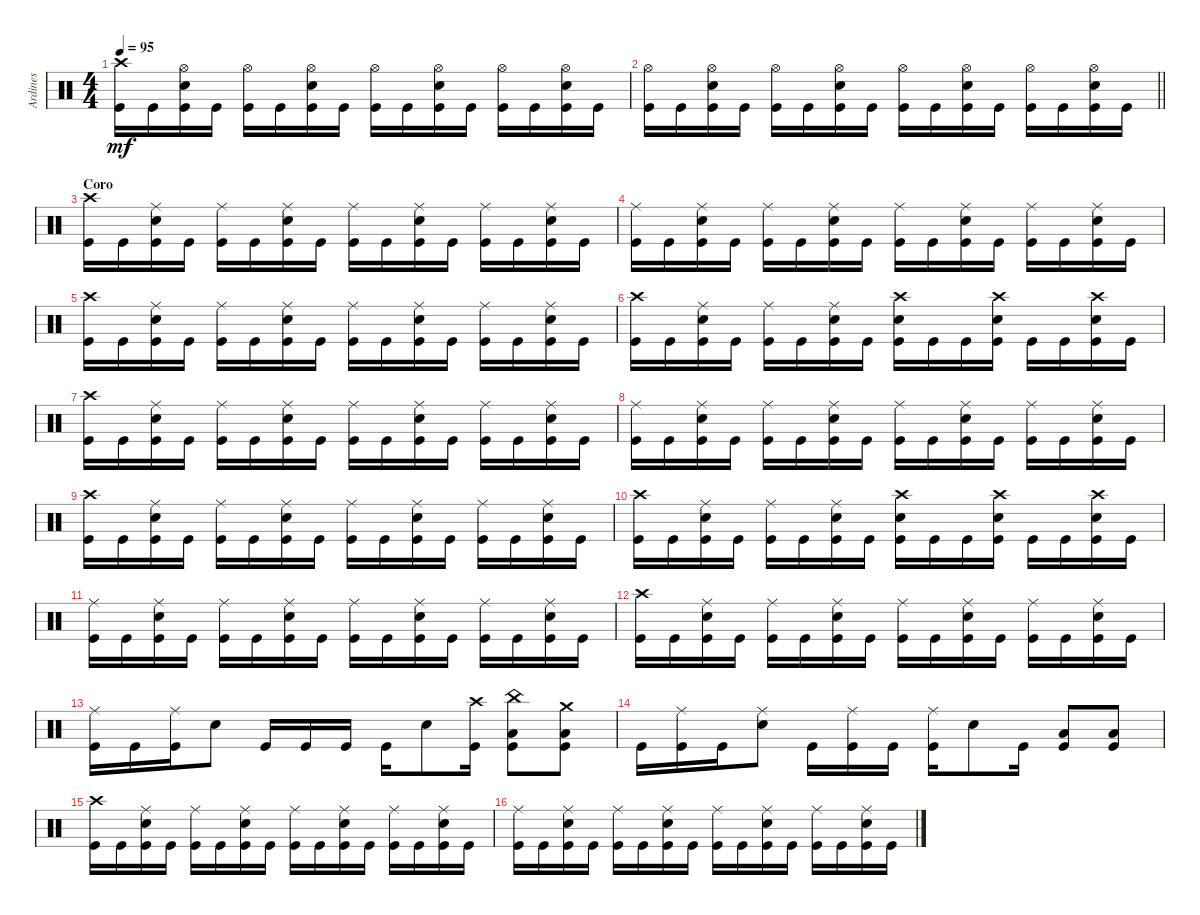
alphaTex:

\track ("Ardines" "Ardines") {instrument percussion}
\staff {score}
\articulation defaults
\ts (4 4)
\tempo 95
\clef neutral
\ks c
("Crash high (hit)" "Kick (hit)").16{dy mf} "Kick (hit)".16 ("Hi-Hat (open)" "Snare (hit) 2" "Kick (hit)").16 "Kick (hit)".16 ("Hi-Hat (open)" "Kick (hit)").16 "Kick (hit)".16 ("Hi-Hat (open)" "Snare (hit) 2" "Kick (hit)").16 "Kick (hit)".16 ("Hi-Hat (open)" "Kick (hit)").16 "Kick (hit)".16 ("Hi-Hat (open)" "Snare (hit) 2" "Kick (hit)").16 "Kick (hit)".16 ("Hi-Hat (open)" "Kick (hit)").16 "Kick (hit)".16 ("Hi-Hat (open)" "Snare (hit) 2" "Kick (hit)").16 "Kick (hit)".16 |
\barLineRight lightlight
("Hi-Hat (open)" "Kick (hit)").16 "Kick (hit)".16 ("Hi-Hat (open)" "Snare (hit) 2" "Kick (hit)").16 "Kick (hit)".16 ("Hi-Hat (open)" "Kick (hit)").16 "Kick (hit)".16 ("Hi-Hat (open)" "Snare (hit) 2" "Kick (hit)").16 "Kick (hit)".16 ("Hi-Hat (open)" "Kick (hit)").16 "Kick (hit)".16 ("Hi-Hat (open)" "Snare (hit) 2" "Kick (hit)").16 "Kick (hit)".16 ("Hi-Hat (open)" "Kick (hit)").16 "Kick (hit)".16 ("Hi-Hat (open)" "Snare (hit) 2" "Kick (hit)").16 "Kick (hit)".16 |
\section ("" "Coro")
("Crash high (hit)" "Kick (hit)").16 "Kick (hit)".16 ("Ride (middle)" "Snare (hit) 2" "Kick (hit)").16 "Kick (hit)".16 ("Ride (middle)" "Kick (hit)").16 "Kick (hit)".16 ("Ride (middle)" "Snare (hit) 2" "Kick (hit)").16 "Kick (hit)".16 ("Ride (middle)" "Kick (hit)").16 "Kick (hit)".16 ("Ride (middle)" "Snare (hit) 2" "Kick (hit)").16 "Kick (hit)".16 ("Ride (middle)" "Kick (hit)").16 "Kick (hit)".16 ("Ride (middle)" "Snare (hit) 2" "Kick (hit)").16 "Kick (hit)".16 |
("Ride (middle)" "Kick (hit)").16 "Kick (hit)".16 ("Ride (middle)" "Snare (hit) 2" "Kick (hit)").16 "Kick (hit)".16 ("Ride (middle)" "Kick (hit)").16 "Kick (hit)".16 ("Ride (middle)" "Snare (hit) 2" "Kick (hit)").16 "Kick (hit)".16 ("Ride (middle)" "Kick (hit)").16 "Kick (hit)".16 ("Ride (middle)" "Snare (hit) 2" "Kick (hit)").16 "Kick (hit)".16 ("Ride (middle)" "Kick (hit)").16 "Kick (hit)".16 ("Ride (middle)" "Snare (hit) 2" "Kick (hit)").16 "Kick (hit)".16 |
("Crash high (hit)" "Kick (hit)").16 "Kick (hit)".16 ("Ride (middle)" "Snare (hit) 2" "Kick (hit)").16 "Kick (hit)".16 ("Ride (middle)" "Kick (hit)").16 "Kick (hit)".16 ("Ride (middle)" "Snare (hit) 2" "Kick (hit)").16 "Kick (hit)".16 ("Ride (middle)" "Kick (hit)").16 "Kick (hit)".16 ("Ride (middle)" "Snare (hit) 2" "Kick (hit)").16 "Kick (hit)".16 ("Ride (middle)" "Kick (hit)").16 "Kick (hit)".16 ("Ride (middle)" "Snare (hit) 2" "Kick (hit)").16 "Kick (hit)".16 |
("Crash high (hit)" "Kick (hit)").16 "Kick (hit)".16 ("Ride (middle)" "Snare (hit) 2" "Kick (hit)").16 "Kick (hit)".16 ("Ride (middle)" "Kick (hit)").16 "Kick (hit)".16 ("Ride (middle)" "Snare (hit) 2" "Kick (hit)").16 "Kick (hit)".16 ("Crash high (hit)" "Snare (hit) 2" "Kick (hit)").16 "Kick (hit)".16 "Kick (hit)".16 ("Crash high (hit)" "Snare (hit) 2" "Kick (hit)").16 "Kick (hit)".16 "Kick (hit)".16 ("Crash high (hit)" "Snare (hit) 2" "Kick (hit)").16 "Kick (hit)".16 |
("Crash high (hit)" "Kick (hit)").16 "Kick (hit)".16 ("Ride (middle)" "Snare (hit) 2" "Kick (hit)").16 "Kick (hit)".16 ("Ride (middle)" "Kick (hit)").16 "Kick (hit)".16 ("Ride (middle)" "Snare (hit) 2" "Kick (hit)").16 "Kick (hit)".16 ("Ride (middle)" "Kick (hit)").16 "Kick (hit)".16 ("Ride (middle)" "Snare (hit) 2" "Kick (hit)").16 "Kick (hit)".16 ("Ride (middle)" "Kick (hit)").16 "Kick (hit)".16 ("Ride (middle)" "Snare (hit) 2" "Kick (hit)").16 "Kick (hit)".16 |
("Ride (middle)" "Kick (hit)").16 "Kick (hit)".16 ("Ride (middle)" "Snare (hit) 2" "Kick (hit)").16 "Kick (hit)".16 ("Ride (middle)" "Kick (hit)").16 "Kick (hit)".16 ("Ride (middle)" "Snare (hit) 2" "Kick (hit)").16 "Kick (hit)".16 ("Ride (middle)" "Kick (hit)").16 "Kick (hit)".16 ("Ride (middle)" "Snare (hit) 2" "Kick (hit)").16 "Kick (hit)".16 ("Ride (middle)" "Kick (hit)").16 "Kick (hit)".16 ("Ride (middle)" "Snare (hit) 2" "Kick (hit)").16 "Kick (hit)".16 |
("Crash high (hit)" "Kick (hit)").16 "Kick (hit)".16 ("Ride (middle)" "Snare (hit) 2" "Kick (hit)").16 "Kick (hit)".16 ("Ride (middle)" "Kick (hit)").16 "Kick (hit)".16 ("Ride (middle)" "Snare (hit) 2" "Kick (hit)").16 "Kick (hit)".16 ("Ride (middle)" "Kick (hit)").16 "Kick (hit)".16 ("Ride (middle)" "Snare (hit) 2" "Kick (hit)").16 "Kick (hit)".16 ("Ride (middle)" "Kick (hit)").16 "Kick (hit)".16 ("Ride (middle)" "Snare (hit) 2" "Kick (hit)").16 "Kick (hit)".16 |
("Crash high (hit)" "Kick (hit)").16 "Kick (hit)".16 ("Ride (middle)" "Snare (hit) 2" "Kick (hit)").16 "Kick (hit)".16 ("Ride (middle)" "Kick (hit)").16 "Kick (hit)".16 ("Ride (middle)" "Snare (hit) 2" "Kick (hit)").16 "Kick (hit)".16 ("Crash high (hit)" "Snare (hit) 2" "Kick (hit)").16 "Kick (hit)".16 "Kick (hit)".16 ("Crash high (hit)" "Snare (hit) 2" "Kick (hit)").16 "Kick (hit)".16 "Kick (hit)".16 ("Crash high (hit)" "Snare (hit) 2" "Kick (hit)").16 "Kick (hit)".16 |
("Ride (middle)" "Kick (hit)").16 "Kick (hit)".16 ("Ride (middle)" "Snare (hit) 2" "Kick (hit)").16 "Kick (hit)".16 ("Ride (middle)" "Kick (hit)").16 "Kick (hit)".16 ("Ride (middle)" "Snare (hit) 2" "Kick (hit)").16 "Kick (hit)".16 ("Ride (middle)" "Kick (hit)").16 "Kick (hit)".16 ("Ride (middle)" "Snare (hit) 2" "Kick (hit)").16 "Kick (hit)".16 ("Ride (middle)" "Kick (hit)").16 "Kick (hit)".16 ("Ride (middle)" "Snare (hit) 2" "Kick (hit)").16 "Kick (hit)".16 |
("Crash high (hit)" "Kick (hit)").16 "Kick (hit)".16 ("Ride (middle)" "Snare (hit) 2" "Kick (hit)").16 "Kick (hit)".16 ("Ride (middle)" "Kick (hit)").16 "Kick (hit)".16 ("Ride (middle)" "Snare (hit) 2" "Kick (hit)").16 "Kick (hit)".16 ("Ride (middle)" "Kick (hit)").16 "Kick (hit)".16 ("Ride (middle)" "Snare (hit) 2" "Kick (hit)").16 "Kick (hit)".16 ("Ride (middle)" "Kick (hit)").16 "Kick (hit)".16 ("Ride (middle)" "Snare (hit) 2" "Kick (hit)").16 "Kick (hit)".16 |
("Ride (middle)" "Kick (hit)").16 "Kick (hit)".16 ("Ride (middle)" "Kick (hit)").16 "Snare (hit) 2".8 "Kick (hit)".16 "Kick (hit)".16 "Kick (hit)".16 "Kick (hit)".16 "Snare (hit) 2".8 ("Crash high (hit)" "Kick (hit)").16 ("China (hit)" "Low Tom (hit)" "Kick (hit)").8 ("Crash medium (hit)" "Low Tom (hit)" "Kick (hit)").8 |
"Kick (hit)".16 ("Ride (middle)" "Kick (hit)").16 "Kick (hit)".16 ("Ride (middle)" "Snare (hit) 2").8 "Kick (hit)".16 ("Ride (middle)" "Kick (hit)").16 "Kick (hit)".16 ("Ride (middle)" "Kick (hit)").16 "Snare (hit) 2".8 "Kick (hit)".16 ("Low Tom (hit)" "Kick (hit)").8 ("Low Tom (hit)" "Kick (hit)").8 |
("Crash high (hit)" "Kick (hit)").16 "Kick (hit)".16 ("Ride (middle)" "Snare (hit) 2" "Kick (hit)").16 "Kick (hit)".16 ("Ride (middle)" "Kick (hit)").16 "Kick (hit)".16 ("Ride (middle)" "Snare (hit) 2" "Kick (hit)").16 "Kick (hit)".16 ("Ride (middle)" "Kick (hit)").16 "Kick (hit)".16 ("Ride (middle)" "Snare (hit) 2" "Kick (hit)").16 "Kick (hit)".16 ("Ride (middle)" "Kick (hit)").16 "Kick (hit)".16 ("Ride (middle)" "Snare (hit) 2" "Kick (hit)").16 "Kick (hit)".16 |
("Ride (middle)" "Kick (hit)").16 "Kick (hit)".16 ("Ride (middle)" "Snare (hit) 2" "Kick (hit)").16 "Kick (hit)".16 ("Ride (middle)" "Kick (hit)").16 "Kick (hit)".16 ("Ride (middle)" "Snare (hit) 2" "Kick (hit)").16 "Kick (hit)".16 ("Ride (middle)" "Kick (hit)").16 "Kick (hit)".16 ("Ride (middle)" "Snare (hit) 2" "Kick (hit)").16 "Kick (hit)".16 ("Ride (middle)" "Kick (hit)").16 "Kick (hit)".16 ("Ride (middle)" "Snare (hit) 2" "Kick (hit)").16 "Kick (hit)".16
